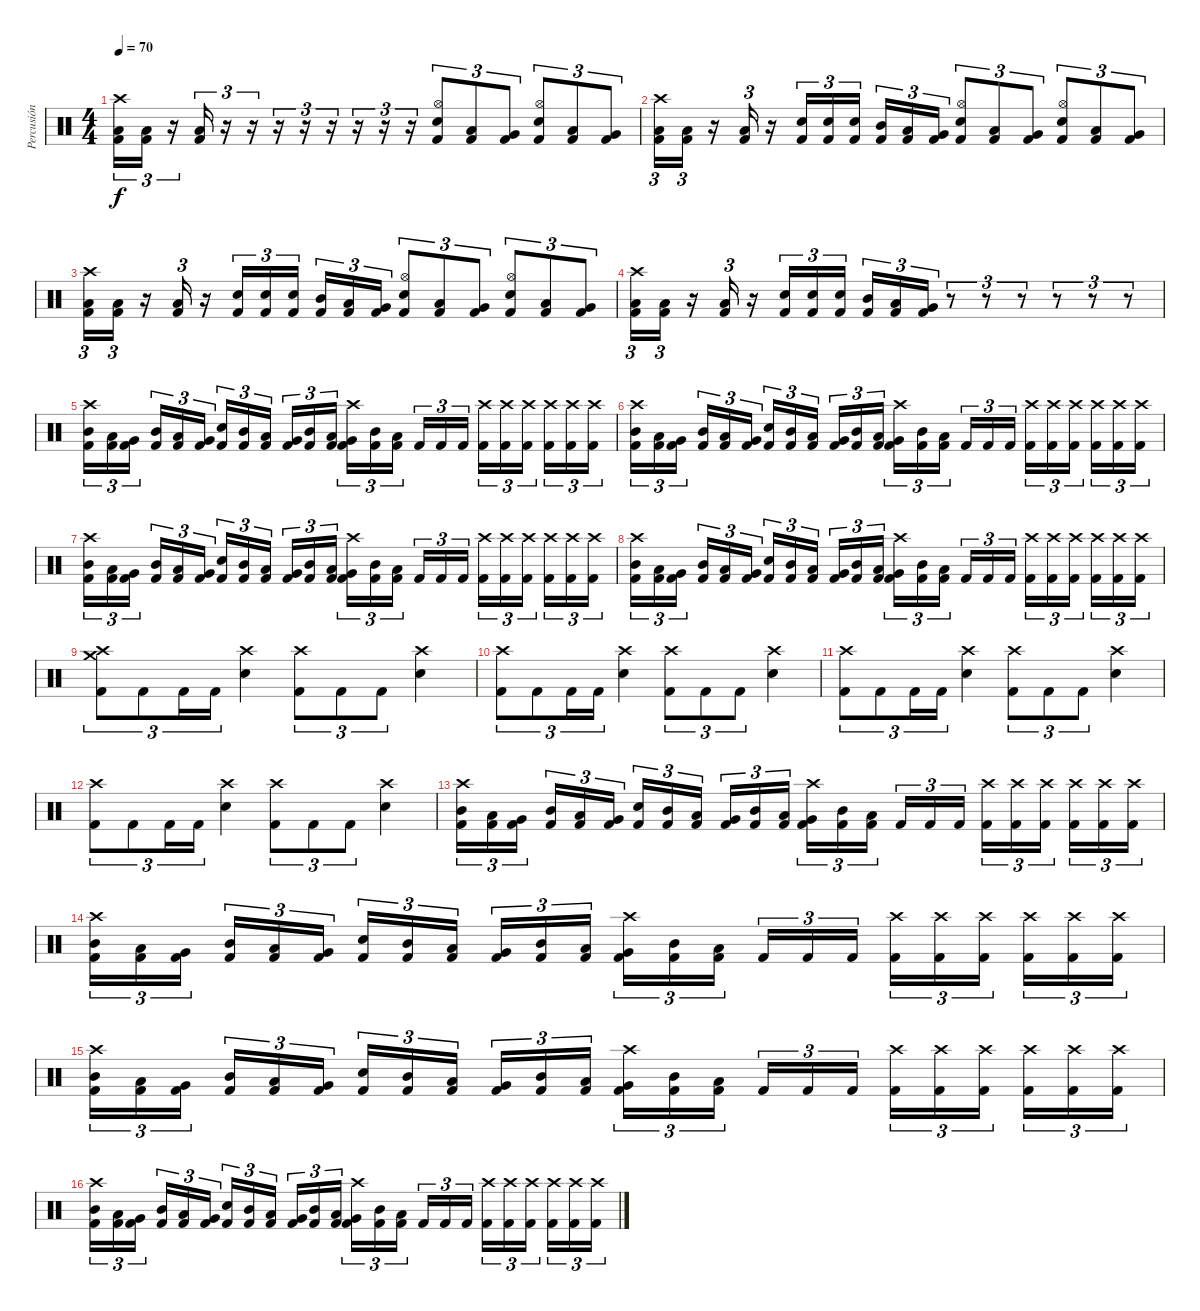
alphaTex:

\track ("Percusión" "Percusión") {instrument percussion}
\staff {score}
\articulation defaults
\ts (4 4)
\tempo 70
\clef neutral
\ks c
("Crash high (hit)" "Low Floor Tom (hit)" "Kick (hit) 2").16{tu (3 2) dy f} ("Low Floor Tom (hit)" "Kick (hit) 2").16{tu (3 2)} r.16{tu (3 2)} ("Low Floor Tom (hit)" "Kick (hit) 2").16{tu (3 2)} r.16{tu (3 2)} r.16{tu (3 2)} r.16{tu (3 2)} r.16{tu (3 2)} r.16{tu (3 2)} r.16{tu (3 2)} r.16{tu (3 2)} r.16{tu (3 2)} ("Hi-Hat (open)" "Electric Snare (hit)" "Kick (hit) 2").8{tu (3 2)} ("Low Floor Tom (hit)" "Kick (hit) 2").8{tu (3 2)} ("Very Low Tom (hit)" "Kick (hit) 2").8{tu (3 2)} ("Hi-Hat (open)" "Electric Snare (hit)" "Kick (hit) 2").8{tu (3 2)} ("Low Floor Tom (hit)" "Kick (hit) 2").8{tu (3 2)} ("Very Low Tom (hit)" "Kick (hit) 2").8{tu (3 2)} |
("Crash high (hit)" "Low Floor Tom (hit)" "Kick (hit) 2").16{tu (3 2)} ("Low Floor Tom (hit)" "Kick (hit) 2").16{tu (3 2)} r.16 ("Low Floor Tom (hit)" "Kick (hit) 2").16{tu (3 2)} r.16 ("Electric Snare (hit)" "Kick (hit) 2").16{tu (3 2)} ("Electric Snare (hit)" "Kick (hit) 2").16{tu (3 2)} ("Electric Snare (hit)" "Kick (hit) 2").16{tu (3 2) beam splitsecondary} ("Mid Tom (hit)" "Kick (hit) 2").16{tu (3 2)} ("Low Tom (hit)" "Kick (hit) 2").16{tu (3 2)} ("Very Low Tom (hit)" "Kick (hit) 2").16{tu (3 2)} ("Hi-Hat (open)" "Electric Snare (hit)" "Kick (hit) 2").8{tu (3 2)} ("Low Floor Tom (hit)" "Kick (hit) 2").8{tu (3 2)} ("Very Low Tom (hit)" "Kick (hit) 2").8{tu (3 2)} ("Hi-Hat (open)" "Electric Snare (hit)" "Kick (hit) 2").8{tu (3 2)} ("Low Floor Tom (hit)" "Kick (hit) 2").8{tu (3 2)} ("Very Low Tom (hit)" "Kick (hit) 2").8{tu (3 2)} |
("Crash high (hit)" "Low Floor Tom (hit)" "Kick (hit) 2").16{tu (3 2)} ("Low Floor Tom (hit)" "Kick (hit) 2").16{tu (3 2)} r.16 ("Low Floor Tom (hit)" "Kick (hit) 2").16{tu (3 2)} r.16 ("Electric Snare (hit)" "Kick (hit) 2").16{tu (3 2)} ("Electric Snare (hit)" "Kick (hit) 2").16{tu (3 2)} ("Electric Snare (hit)" "Kick (hit) 2").16{tu (3 2) beam splitsecondary} ("Mid Tom (hit)" "Kick (hit) 2").16{tu (3 2)} ("Low Tom (hit)" "Kick (hit) 2").16{tu (3 2)} ("Very Low Tom (hit)" "Kick (hit) 2").16{tu (3 2)} ("Hi-Hat (open)" "Electric Snare (hit)" "Kick (hit) 2").8{tu (3 2)} ("Low Floor Tom (hit)" "Kick (hit) 2").8{tu (3 2)} ("Very Low Tom (hit)" "Kick (hit) 2").8{tu (3 2)} ("Hi-Hat (open)" "Electric Snare (hit)" "Kick (hit) 2").8{tu (3 2)} ("Low Floor Tom (hit)" "Kick (hit) 2").8{tu (3 2)} ("Very Low Tom (hit)" "Kick (hit) 2").8{tu (3 2)} |
("Crash high (hit)" "Low Floor Tom (hit)" "Kick (hit) 2").16{tu (3 2)} ("Low Floor Tom (hit)" "Kick (hit) 2").16{tu (3 2)} r.16 ("Low Floor Tom (hit)" "Kick (hit) 2").16{tu (3 2)} r.16 ("Electric Snare (hit)" "Kick (hit) 2").16{tu (3 2)} ("Electric Snare (hit)" "Kick (hit) 2").16{tu (3 2)} ("Electric Snare (hit)" "Kick (hit) 2").16{tu (3 2) beam splitsecondary} ("Mid Tom (hit)" "Kick (hit) 2").16{tu (3 2)} ("Low Tom (hit)" "Kick (hit) 2").16{tu (3 2)} ("Very Low Tom (hit)" "Kick (hit) 2").16{tu (3 2)} r.8{tu (3 2)} r.8{tu (3 2)} r.8{tu (3 2)} r.8{tu (3 2)} r.8{tu (3 2)} r.8{tu (3 2)} |
("Crash high (hit)" "Mid Tom (hit)" "Kick (hit) 2").16{tu (3 2)} ("Low Tom (hit)" "Kick (hit) 2").16{tu (3 2)} ("Very Low Tom (hit)" "Kick (hit) 2").16{tu (3 2) beam splitsecondary} ("Mid Tom (hit)" "Kick (hit) 2").16{tu (3 2)} ("Low Tom (hit)" "Kick (hit) 2").16{tu (3 2)} ("Very Low Tom (hit)" "Kick (hit) 2").16{tu (3 2)} ("Electric Snare (hit)" "Kick (hit) 2").16{tu (3 2)} ("Mid Tom (hit)" "Kick (hit) 2").16{tu (3 2)} ("Low Tom (hit)" "Kick (hit) 2").16{tu (3 2) beam splitsecondary} ("Very Low Tom (hit)" "Kick (hit) 2").16{tu (3 2)} ("Mid Tom (hit)" "Kick (hit) 2").16{tu (3 2)} ("Low Tom (hit)" "Kick (hit) 2").16{tu (3 2)} ("Crash high (hit)" "Very Low Tom (hit)" "Kick (hit) 2").16{tu (3 2)} ("Mid Tom (hit)" "Kick (hit) 2").16{tu (3 2)} ("Low Tom (hit)" "Kick (hit) 2").16{tu (3 2) beam splitsecondary} "Kick (hit) 2".16{tu (3 2)} "Kick (hit) 2".16{tu (3 2)} "Kick (hit) 2".16{tu (3 2)} ("Crash high (hit)" "Kick (hit) 2").16{tu (3 2)} ("Crash high (hit)" "Kick (hit) 2").16{tu (3 2)} ("Crash high (hit)" "Kick (hit) 2").16{tu (3 2) beam splitsecondary} ("Crash high (hit)" "Kick (hit) 2").16{tu (3 2)} ("Crash high (hit)" "Kick (hit) 2").16{tu (3 2)} ("Crash high (hit)" "Kick (hit) 2").16{tu (3 2)} |
("Crash high (hit)" "Mid Tom (hit)" "Kick (hit) 2").16{tu (3 2)} ("Low Tom (hit)" "Kick (hit) 2").16{tu (3 2)} ("Very Low Tom (hit)" "Kick (hit) 2").16{tu (3 2) beam splitsecondary} ("Mid Tom (hit)" "Kick (hit) 2").16{tu (3 2)} ("Low Tom (hit)" "Kick (hit) 2").16{tu (3 2)} ("Very Low Tom (hit)" "Kick (hit) 2").16{tu (3 2)} ("Electric Snare (hit)" "Kick (hit) 2").16{tu (3 2)} ("Mid Tom (hit)" "Kick (hit) 2").16{tu (3 2)} ("Low Tom (hit)" "Kick (hit) 2").16{tu (3 2) beam splitsecondary} ("Very Low Tom (hit)" "Kick (hit) 2").16{tu (3 2)} ("Mid Tom (hit)" "Kick (hit) 2").16{tu (3 2)} ("Low Tom (hit)" "Kick (hit) 2").16{tu (3 2)} ("Crash high (hit)" "Very Low Tom (hit)" "Kick (hit) 2").16{tu (3 2)} ("Mid Tom (hit)" "Kick (hit) 2").16{tu (3 2)} ("Low Tom (hit)" "Kick (hit) 2").16{tu (3 2) beam splitsecondary} "Kick (hit) 2".16{tu (3 2)} "Kick (hit) 2".16{tu (3 2)} "Kick (hit) 2".16{tu (3 2)} ("Crash high (hit)" "Kick (hit) 2").16{tu (3 2)} ("Crash high (hit)" "Kick (hit) 2").16{tu (3 2)} ("Crash high (hit)" "Kick (hit) 2").16{tu (3 2) beam splitsecondary} ("Crash high (hit)" "Kick (hit) 2").16{tu (3 2)} ("Crash high (hit)" "Kick (hit) 2").16{tu (3 2)} ("Crash high (hit)" "Kick (hit) 2").16{tu (3 2)} |
("Crash high (hit)" "Mid Tom (hit)" "Kick (hit) 2").16{tu (3 2)} ("Low Tom (hit)" "Kick (hit) 2").16{tu (3 2)} ("Very Low Tom (hit)" "Kick (hit) 2").16{tu (3 2) beam splitsecondary} ("Mid Tom (hit)" "Kick (hit) 2").16{tu (3 2)} ("Low Tom (hit)" "Kick (hit) 2").16{tu (3 2)} ("Very Low Tom (hit)" "Kick (hit) 2").16{tu (3 2)} ("Electric Snare (hit)" "Kick (hit) 2").16{tu (3 2)} ("Mid Tom (hit)" "Kick (hit) 2").16{tu (3 2)} ("Low Tom (hit)" "Kick (hit) 2").16{tu (3 2) beam splitsecondary} ("Very Low Tom (hit)" "Kick (hit) 2").16{tu (3 2)} ("Mid Tom (hit)" "Kick (hit) 2").16{tu (3 2)} ("Low Tom (hit)" "Kick (hit) 2").16{tu (3 2)} ("Crash high (hit)" "Very Low Tom (hit)" "Kick (hit) 2").16{tu (3 2)} ("Mid Tom (hit)" "Kick (hit) 2").16{tu (3 2)} ("Low Tom (hit)" "Kick (hit) 2").16{tu (3 2) beam splitsecondary} "Kick (hit) 2".16{tu (3 2)} "Kick (hit) 2".16{tu (3 2)} "Kick (hit) 2".16{tu (3 2)} ("Crash high (hit)" "Kick (hit) 2").16{tu (3 2)} ("Crash high (hit)" "Kick (hit) 2").16{tu (3 2)} ("Crash high (hit)" "Kick (hit) 2").16{tu (3 2) beam splitsecondary} ("Crash high (hit)" "Kick (hit) 2").16{tu (3 2)} ("Crash high (hit)" "Kick (hit) 2").16{tu (3 2)} ("Crash high (hit)" "Kick (hit) 2").16{tu (3 2)} |
("Crash high (hit)" "Mid Tom (hit)" "Kick (hit) 2").16{tu (3 2)} ("Low Tom (hit)" "Kick (hit) 2").16{tu (3 2)} ("Very Low Tom (hit)" "Kick (hit) 2").16{tu (3 2) beam splitsecondary} ("Mid Tom (hit)" "Kick (hit) 2").16{tu (3 2)} ("Low Tom (hit)" "Kick (hit) 2").16{tu (3 2)} ("Very Low Tom (hit)" "Kick (hit) 2").16{tu (3 2)} ("Electric Snare (hit)" "Kick (hit) 2").16{tu (3 2)} ("Mid Tom (hit)" "Kick (hit) 2").16{tu (3 2)} ("Low Tom (hit)" "Kick (hit) 2").16{tu (3 2) beam splitsecondary} ("Very Low Tom (hit)" "Kick (hit) 2").16{tu (3 2)} ("Mid Tom (hit)" "Kick (hit) 2").16{tu (3 2)} ("Low Tom (hit)" "Kick (hit) 2").16{tu (3 2)} ("Crash high (hit)" "Very Low Tom (hit)" "Kick (hit) 2").16{tu (3 2)} ("Mid Tom (hit)" "Kick (hit) 2").16{tu (3 2)} ("Low Tom (hit)" "Kick (hit) 2").16{tu (3 2) beam splitsecondary} "Kick (hit) 2".16{tu (3 2)} "Kick (hit) 2".16{tu (3 2)} "Kick (hit) 2".16{tu (3 2)} ("Crash high (hit)" "Kick (hit) 2").16{tu (3 2)} ("Crash high (hit)" "Kick (hit) 2").16{tu (3 2)} ("Crash high (hit)" "Kick (hit) 2").16{tu (3 2) beam splitsecondary} ("Crash high (hit)" "Kick (hit) 2").16{tu (3 2)} ("Crash high (hit)" "Kick (hit) 2").16{tu (3 2)} ("Crash high (hit)" "Kick (hit) 2").16{tu (3 2)} |
("Crash medium (hit)" "Crash high (hit)" "Kick (hit) 2").8{tu (3 2)} "Kick (hit) 2".8{tu (3 2)} "Kick (hit) 2".16{tu (3 2)} "Kick (hit) 2".16{tu (3 2)} ("Crash high (hit)" "Snare (hit) 2").4 ("Crash high (hit)" "Kick (hit) 2").8{tu (3 2)} "Kick (hit) 2".8{tu (3 2)} "Kick (hit) 2".8{tu (3 2)} ("Crash high (hit)" "Snare (hit) 2").4 |
("Crash high (hit)" "Kick (hit) 2").8{tu (3 2)} "Kick (hit) 2".8{tu (3 2)} "Kick (hit) 2".16{tu (3 2)} "Kick (hit) 2".16{tu (3 2)} ("Crash high (hit)" "Snare (hit) 2").4 ("Crash high (hit)" "Kick (hit) 2").8{tu (3 2)} "Kick (hit) 2".8{tu (3 2)} "Kick (hit) 2".8{tu (3 2)} ("Crash high (hit)" "Snare (hit) 2").4 |
("Crash high (hit)" "Kick (hit) 2").8{tu (3 2)} "Kick (hit) 2".8{tu (3 2)} "Kick (hit) 2".16{tu (3 2)} "Kick (hit) 2".16{tu (3 2)} ("Crash high (hit)" "Snare (hit) 2").4 ("Crash high (hit)" "Kick (hit) 2").8{tu (3 2)} "Kick (hit) 2".8{tu (3 2)} "Kick (hit) 2".8{tu (3 2)} ("Crash high (hit)" "Snare (hit) 2").4 |
("Crash high (hit)" "Kick (hit) 2").8{tu (3 2)} "Kick (hit) 2".8{tu (3 2)} "Kick (hit) 2".16{tu (3 2)} "Kick (hit) 2".16{tu (3 2)} ("Crash high (hit)" "Snare (hit) 2").4 ("Crash high (hit)" "Kick (hit) 2").8{tu (3 2)} "Kick (hit) 2".8{tu (3 2)} "Kick (hit) 2".8{tu (3 2)} ("Crash high (hit)" "Snare (hit) 2").4 |
("Crash high (hit)" "Mid Tom (hit)" "Kick (hit) 2").16{tu (3 2)} ("Low Tom (hit)" "Kick (hit) 2").16{tu (3 2)} ("Very Low Tom (hit)" "Kick (hit) 2").16{tu (3 2) beam splitsecondary} ("Mid Tom (hit)" "Kick (hit) 2").16{tu (3 2)} ("Low Tom (hit)" "Kick (hit) 2").16{tu (3 2)} ("Very Low Tom (hit)" "Kick (hit) 2").16{tu (3 2)} ("Electric Snare (hit)" "Kick (hit) 2").16{tu (3 2)} ("Mid Tom (hit)" "Kick (hit) 2").16{tu (3 2)} ("Low Tom (hit)" "Kick (hit) 2").16{tu (3 2) beam splitsecondary} ("Very Low Tom (hit)" "Kick (hit) 2").16{tu (3 2)} ("Mid Tom (hit)" "Kick (hit) 2").16{tu (3 2)} ("Low Tom (hit)" "Kick (hit) 2").16{tu (3 2)} ("Crash high (hit)" "Very Low Tom (hit)" "Kick (hit) 2").16{tu (3 2)} ("Mid Tom (hit)" "Kick (hit) 2").16{tu (3 2)} ("Low Tom (hit)" "Kick (hit) 2").16{tu (3 2) beam splitsecondary} "Kick (hit) 2".16{tu (3 2)} "Kick (hit) 2".16{tu (3 2)} "Kick (hit) 2".16{tu (3 2)} ("Crash high (hit)" "Kick (hit) 2").16{tu (3 2)} ("Crash high (hit)" "Kick (hit) 2").16{tu (3 2)} ("Crash high (hit)" "Kick (hit) 2").16{tu (3 2) beam splitsecondary} ("Crash high (hit)" "Kick (hit) 2").16{tu (3 2)} ("Crash high (hit)" "Kick (hit) 2").16{tu (3 2)} ("Crash high (hit)" "Kick (hit) 2").16{tu (3 2)} |
("Crash high (hit)" "Mid Tom (hit)" "Kick (hit) 2").16{tu (3 2)} ("Low Tom (hit)" "Kick (hit) 2").16{tu (3 2)} ("Very Low Tom (hit)" "Kick (hit) 2").16{tu (3 2) beam splitsecondary} ("Mid Tom (hit)" "Kick (hit) 2").16{tu (3 2)} ("Low Tom (hit)" "Kick (hit) 2").16{tu (3 2)} ("Very Low Tom (hit)" "Kick (hit) 2").16{tu (3 2)} ("Electric Snare (hit)" "Kick (hit) 2").16{tu (3 2)} ("Mid Tom (hit)" "Kick (hit) 2").16{tu (3 2)} ("Low Tom (hit)" "Kick (hit) 2").16{tu (3 2) beam splitsecondary} ("Very Low Tom (hit)" "Kick (hit) 2").16{tu (3 2)} ("Mid Tom (hit)" "Kick (hit) 2").16{tu (3 2)} ("Low Tom (hit)" "Kick (hit) 2").16{tu (3 2)} ("Crash high (hit)" "Very Low Tom (hit)" "Kick (hit) 2").16{tu (3 2)} ("Mid Tom (hit)" "Kick (hit) 2").16{tu (3 2)} ("Low Tom (hit)" "Kick (hit) 2").16{tu (3 2) beam splitsecondary} "Kick (hit) 2".16{tu (3 2)} "Kick (hit) 2".16{tu (3 2)} "Kick (hit) 2".16{tu (3 2)} ("Crash high (hit)" "Kick (hit) 2").16{tu (3 2)} ("Crash high (hit)" "Kick (hit) 2").16{tu (3 2)} ("Crash high (hit)" "Kick (hit) 2").16{tu (3 2) beam splitsecondary} ("Crash high (hit)" "Kick (hit) 2").16{tu (3 2)} ("Crash high (hit)" "Kick (hit) 2").16{tu (3 2)} ("Crash high (hit)" "Kick (hit) 2").16{tu (3 2)} |
("Crash high (hit)" "Mid Tom (hit)" "Kick (hit) 2").16{tu (3 2)} ("Low Tom (hit)" "Kick (hit) 2").16{tu (3 2)} ("Very Low Tom (hit)" "Kick (hit) 2").16{tu (3 2) beam splitsecondary} ("Mid Tom (hit)" "Kick (hit) 2").16{tu (3 2)} ("Low Tom (hit)" "Kick (hit) 2").16{tu (3 2)} ("Very Low Tom (hit)" "Kick (hit) 2").16{tu (3 2)} ("Electric Snare (hit)" "Kick (hit) 2").16{tu (3 2)} ("Mid Tom (hit)" "Kick (hit) 2").16{tu (3 2)} ("Low Tom (hit)" "Kick (hit) 2").16{tu (3 2) beam splitsecondary} ("Very Low Tom (hit)" "Kick (hit) 2").16{tu (3 2)} ("Mid Tom (hit)" "Kick (hit) 2").16{tu (3 2)} ("Low Tom (hit)" "Kick (hit) 2").16{tu (3 2)} ("Crash high (hit)" "Very Low Tom (hit)" "Kick (hit) 2").16{tu (3 2)} ("Mid Tom (hit)" "Kick (hit) 2").16{tu (3 2)} ("Low Tom (hit)" "Kick (hit) 2").16{tu (3 2) beam splitsecondary} "Kick (hit) 2".16{tu (3 2)} "Kick (hit) 2".16{tu (3 2)} "Kick (hit) 2".16{tu (3 2)} ("Crash high (hit)" "Kick (hit) 2").16{tu (3 2)} ("Crash high (hit)" "Kick (hit) 2").16{tu (3 2)} ("Crash high (hit)" "Kick (hit) 2").16{tu (3 2) beam splitsecondary} ("Crash high (hit)" "Kick (hit) 2").16{tu (3 2)} ("Crash high (hit)" "Kick (hit) 2").16{tu (3 2)} ("Crash high (hit)" "Kick (hit) 2").16{tu (3 2)} |
("Crash high (hit)" "Mid Tom (hit)" "Kick (hit) 2").16{tu (3 2)} ("Low Tom (hit)" "Kick (hit) 2").16{tu (3 2)} ("Very Low Tom (hit)" "Kick (hit) 2").16{tu (3 2) beam splitsecondary} ("Mid Tom (hit)" "Kick (hit) 2").16{tu (3 2)} ("Low Tom (hit)" "Kick (hit) 2").16{tu (3 2)} ("Very Low Tom (hit)" "Kick (hit) 2").16{tu (3 2)} ("Electric Snare (hit)" "Kick (hit) 2").16{tu (3 2)} ("Mid Tom (hit)" "Kick (hit) 2").16{tu (3 2)} ("Low Tom (hit)" "Kick (hit) 2").16{tu (3 2) beam splitsecondary} ("Very Low Tom (hit)" "Kick (hit) 2").16{tu (3 2)} ("Mid Tom (hit)" "Kick (hit) 2").16{tu (3 2)} ("Low Tom (hit)" "Kick (hit) 2").16{tu (3 2)} ("Crash high (hit)" "Very Low Tom (hit)" "Kick (hit) 2").16{tu (3 2)} ("Mid Tom (hit)" "Kick (hit) 2").16{tu (3 2)} ("Low Tom (hit)" "Kick (hit) 2").16{tu (3 2) beam splitsecondary} "Kick (hit) 2".16{tu (3 2)} "Kick (hit) 2".16{tu (3 2)} "Kick (hit) 2".16{tu (3 2)} ("Crash high (hit)" "Kick (hit) 2").16{tu (3 2)} ("Crash high (hit)" "Kick (hit) 2").16{tu (3 2)} ("Crash high (hit)" "Kick (hit) 2").16{tu (3 2) beam splitsecondary} ("Crash high (hit)" "Kick (hit) 2").16{tu (3 2)} ("Crash high (hit)" "Kick (hit) 2").16{tu (3 2)} ("Crash high (hit)" "Kick (hit) 2").16{tu (3 2)}
